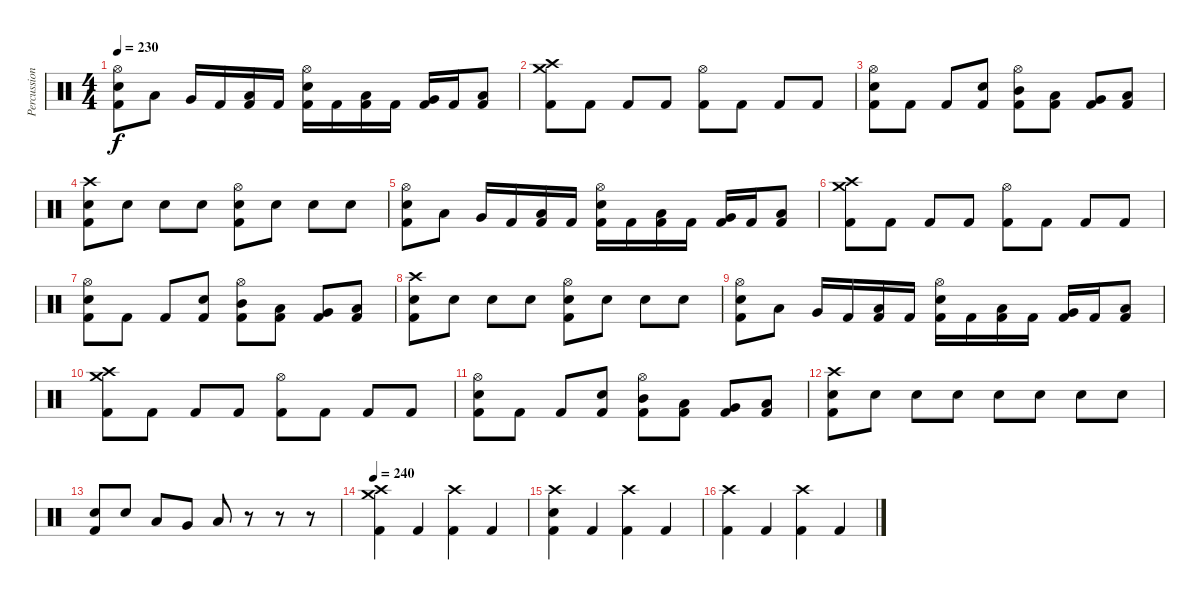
\track ("Percussion" "Percussion") {instrument percussion}
\staff {score}
\articulation defaults
\ts (4 4)
\tempo 230
\clef neutral
\ks c
("Hi-Hat (open)" "Electric Snare (hit)" "Kick (hit) 2").8{dy f} "Low Tom (hit)".8 "Very Low Tom (hit)".16 "Kick (hit) 2".16 ("Low Floor Tom (hit)" "Kick (hit) 2").16 "Kick (hit) 2".16 ("Hi-Hat (open)" "Electric Snare (hit)" "Kick (hit) 2").16 "Kick (hit) 2".16 ("Low Tom (hit)" "Kick (hit) 2").16 "Kick (hit) 2".16 ("Very Low Tom (hit)" "Kick (hit) 2").16 "Kick (hit) 2".16 ("Low Floor Tom (hit)" "Kick (hit) 2").8 |
("Crash medium (hit)" "Crash high (hit)" "Kick (hit) 2").8 "Kick (hit) 2".8 "Kick (hit) 2".8 "Kick (hit) 2".8 ("Hi-Hat (open)" "Kick (hit) 2").8 "Kick (hit) 2".8 "Kick (hit) 2".8 "Kick (hit) 2".8 |
("Hi-Hat (open)" "Electric Snare (hit)" "Kick (hit) 2").8 "Kick (hit) 2".8 "Kick (hit) 2".8 ("Electric Snare (hit)" "Kick (hit) 2").8 ("Hi-Hat (open)" "Mid Tom (hit)" "Kick (hit) 2").8 ("Low Tom (hit)" "Kick (hit) 2").8 ("Very Low Tom (hit)" "Kick (hit) 2").8 ("Low Floor Tom (hit)" "Kick (hit) 2").8 |
("Crash high (hit)" "Electric Snare (hit)" "Kick (hit) 2").8 "Electric Snare (hit)".8 "Electric Snare (hit)".8 "Electric Snare (hit)".8 ("Hi-Hat (open)" "Electric Snare (hit)" "Kick (hit) 2").8 "Electric Snare (hit)".8 "Electric Snare (hit)".8 "Electric Snare (hit)".8 |
("Hi-Hat (open)" "Electric Snare (hit)" "Kick (hit) 2").8 "Low Tom (hit)".8 "Very Low Tom (hit)".16 "Kick (hit) 2".16 ("Low Floor Tom (hit)" "Kick (hit) 2").16 "Kick (hit) 2".16 ("Hi-Hat (open)" "Electric Snare (hit)" "Kick (hit) 2").16 "Kick (hit) 2".16 ("Low Tom (hit)" "Kick (hit) 2").16 "Kick (hit) 2".16 ("Very Low Tom (hit)" "Kick (hit) 2").16 "Kick (hit) 2".16 ("Low Floor Tom (hit)" "Kick (hit) 2").8 |
("Crash medium (hit)" "Crash high (hit)" "Kick (hit) 2").8 "Kick (hit) 2".8 "Kick (hit) 2".8 "Kick (hit) 2".8 ("Hi-Hat (open)" "Kick (hit) 2").8 "Kick (hit) 2".8 "Kick (hit) 2".8 "Kick (hit) 2".8 |
("Hi-Hat (open)" "Electric Snare (hit)" "Kick (hit) 2").8 "Kick (hit) 2".8 "Kick (hit) 2".8 ("Electric Snare (hit)" "Kick (hit) 2").8 ("Hi-Hat (open)" "Mid Tom (hit)" "Kick (hit) 2").8 ("Low Tom (hit)" "Kick (hit) 2").8 ("Very Low Tom (hit)" "Kick (hit) 2").8 ("Low Floor Tom (hit)" "Kick (hit) 2").8 |
("Crash high (hit)" "Electric Snare (hit)" "Kick (hit) 2").8 "Electric Snare (hit)".8 "Electric Snare (hit)".8 "Electric Snare (hit)".8 ("Hi-Hat (open)" "Electric Snare (hit)" "Kick (hit) 2").8 "Electric Snare (hit)".8 "Electric Snare (hit)".8 "Electric Snare (hit)".8 |
("Hi-Hat (open)" "Electric Snare (hit)" "Kick (hit) 2").8 "Low Tom (hit)".8 "Very Low Tom (hit)".16 "Kick (hit) 2".16 ("Low Floor Tom (hit)" "Kick (hit) 2").16 "Kick (hit) 2".16 ("Hi-Hat (open)" "Electric Snare (hit)" "Kick (hit) 2").16 "Kick (hit) 2".16 ("Low Tom (hit)" "Kick (hit) 2").16 "Kick (hit) 2".16 ("Very Low Tom (hit)" "Kick (hit) 2").16 "Kick (hit) 2".16 ("Low Floor Tom (hit)" "Kick (hit) 2").8 |
("Crash medium (hit)" "Crash high (hit)" "Kick (hit) 2").8 "Kick (hit) 2".8 "Kick (hit) 2".8 "Kick (hit) 2".8 ("Hi-Hat (open)" "Kick (hit) 2").8 "Kick (hit) 2".8 "Kick (hit) 2".8 "Kick (hit) 2".8 |
("Hi-Hat (open)" "Electric Snare (hit)" "Kick (hit) 2").8 "Kick (hit) 2".8 "Kick (hit) 2".8 ("Electric Snare (hit)" "Kick (hit) 2").8 ("Hi-Hat (open)" "Mid Tom (hit)" "Kick (hit) 2").8 ("Low Tom (hit)" "Kick (hit) 2").8 ("Very Low Tom (hit)" "Kick (hit) 2").8 ("Low Floor Tom (hit)" "Kick (hit) 2").8 |
("Crash high (hit)" "Electric Snare (hit)" "Kick (hit) 2").8 "Electric Snare (hit)".8 "Electric Snare (hit)".8 "Electric Snare (hit)".8 "Electric Snare (hit)".8 "Electric Snare (hit)".8 "Electric Snare (hit)".8 "Electric Snare (hit)".8 |
("Electric Snare (hit)" "Kick (hit) 2").8 "Electric Snare (hit)".8 "Low Tom (hit)".8 "Very Low Tom (hit)".8 "Low Floor Tom (hit)".8 r.8 r.8 r.8 |
\tempo 240
("Crash medium (hit)" "Crash high (hit)" "Kick (hit) 2").4 "Kick (hit) 2".4 ("Crash high (hit)" "Kick (hit) 2").4 "Kick (hit) 2".4 |
("Crash high (hit)" "Electric Snare (hit)" "Kick (hit) 2").4 "Kick (hit) 2".4 ("Crash high (hit)" "Kick (hit) 2").4 "Kick (hit) 2".4 |
("Crash high (hit)" "Kick (hit) 2").4 "Kick (hit) 2".4 ("Crash high (hit)" "Kick (hit) 2").4 "Kick (hit) 2".4
